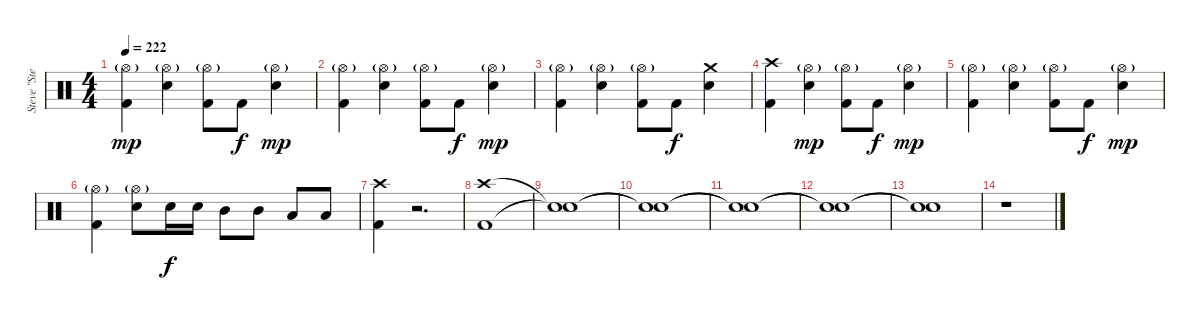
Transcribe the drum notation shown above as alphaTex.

\track ("Steve \"Stevo32\" Jocz " "Steve \"Ste") {instrument percussion}
\staff {score}
\articulation defaults
\ts (4 4)
\tempo 222
\clef neutral
\ks c
("Hi-Hat (open)"{g} "Kick (hit) 2").4{dy mp} ("Hi-Hat (open)"{g} "Electric Snare (hit)").4 ("Hi-Hat (open)"{g} "Kick (hit) 2").8 "Kick (hit) 2".8{dy f} ("Hi-Hat (open)"{g} "Electric Snare (hit)").4{dy mp} |
("Hi-Hat (open)"{g} "Kick (hit) 2").4 ("Hi-Hat (open)"{g} "Electric Snare (hit)").4 ("Hi-Hat (open)"{g} "Kick (hit) 2").8 "Kick (hit) 2".8{dy f} ("Hi-Hat (open)"{g} "Electric Snare (hit)").4{dy mp} |
("Hi-Hat (open)"{g} "Kick (hit) 2").4 ("Hi-Hat (open)"{g} "Electric Snare (hit)").4 ("Hi-Hat (open)"{g} "Kick (hit) 2").8 "Kick (hit) 2".8{dy f} ("Crash medium (hit)" "Electric Snare (hit)").4 |
("Crash high (hit)" "Kick (hit) 2").4 ("Hi-Hat (open)"{g} "Electric Snare (hit)").4{dy mp} ("Hi-Hat (open)"{g} "Kick (hit) 2").8 "Kick (hit) 2".8{dy f} ("Hi-Hat (open)"{g} "Electric Snare (hit)").4{dy mp} |
("Hi-Hat (open)"{g} "Kick (hit) 2").4 ("Hi-Hat (open)"{g} "Electric Snare (hit)").4 ("Hi-Hat (open)"{g} "Kick (hit) 2").8 "Kick (hit) 2".8{dy f} ("Hi-Hat (open)"{g} "Electric Snare (hit)").4{dy mp} |
("Hi-Hat (open)"{g} "Kick (hit) 2").4 ("Hi-Hat (open)"{g} "Electric Snare (hit)").8 "Electric Snare (hit)".16{dy f} "Electric Snare (hit)".16 "Mid Tom (hit)".8 "Mid Tom (hit)".8 "Low Tom (hit)".8 "Low Tom (hit)".8 |
("Crash high (hit)" "Kick (hit) 2").4 r.2{d} |
("Crash high (hit)" "Kick (hit) 2").1{volume 4} |
("Snare (hit)"{t} "Snare (hit)"{t}).1 |
("Snare (hit)"{t} "Snare (hit)"{t}).1 |
("Snare (hit)"{t} "Snare (hit)"{t}).1 |
("Snare (hit)"{t} "Snare (hit)"{t}).1{volume 9} |
("Snare (hit)"{t} "Snare (hit)"{t}).1 |
r.1
